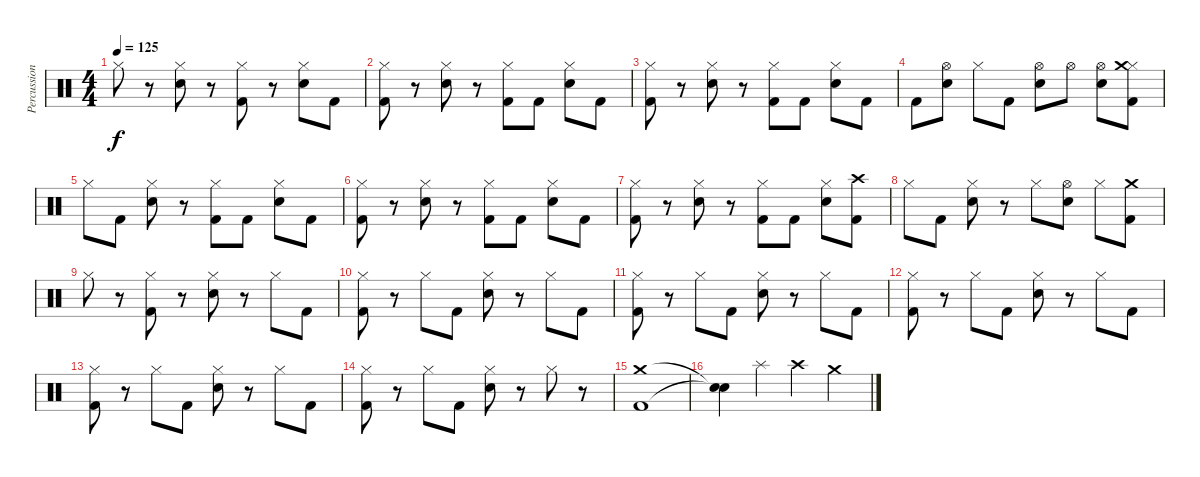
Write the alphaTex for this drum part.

\track ("Percussion" "Percussion") {instrument percussion}
\staff {score}
\articulation defaults
\ts (4 4)
\tempo 125
\clef neutral
\ks c "Hi-Hat (closed)".8{dy f}
r.8 ("Hi-Hat (closed)" "Metronome (bell)").8 r.8 ("Hi-Hat (closed)" "Kick (hit) 2").8 r.8 ("Hi-Hat (closed)" "Metronome (bell)").8 "Kick (hit) 2".8 |
("Hi-Hat (closed)" "Kick (hit) 2").8 r.8 ("Hi-Hat (closed)" "Metronome (bell)").8 r.8 ("Hi-Hat (closed)" "Kick (hit) 2").8 "Kick (hit) 2".8 ("Hi-Hat (closed)" "Metronome (bell)").8 "Kick (hit) 2".8 |
("Hi-Hat (closed)" "Kick (hit) 2").8 r.8 ("Hi-Hat (closed)" "Metronome (bell)").8 r.8 ("Hi-Hat (closed)" "Kick (hit) 2").8 "Kick (hit) 2".8 ("Hi-Hat (closed)" "Metronome (bell)").8 "Kick (hit) 2".8 |
"Kick (hit) 2".8 ("Hi-Hat (open)" "Metronome (bell)").8 "Hi-Hat (closed)".8 "Kick (hit) 2".8 ("Hi-Hat (open)" "Metronome (bell)").8 "Hi-Hat (open)".8 ("Hi-Hat (open)" "Metronome (bell)").8 ("Hi-Hat (closed)" "Crash medium (hit)" "Kick (hit) 2").8 |
"Hi-Hat (closed)".8 "Kick (hit) 2".8 ("Hi-Hat (closed)" "Metronome (bell)").8 r.8 ("Hi-Hat (closed)" "Kick (hit) 2").8 "Kick (hit) 2".8 ("Hi-Hat (closed)" "Metronome (bell)").8 "Kick (hit) 2".8 |
("Hi-Hat (closed)" "Kick (hit) 2").8 r.8 ("Hi-Hat (closed)" "Metronome (bell)").8 r.8 ("Hi-Hat (closed)" "Kick (hit) 2").8 "Kick (hit) 2".8 ("Hi-Hat (closed)" "Metronome (bell)").8 "Kick (hit) 2".8 |
("Hi-Hat (closed)" "Kick (hit) 2").8 r.8 ("Hi-Hat (closed)" "Metronome (bell)").8 r.8 ("Hi-Hat (closed)" "Kick (hit) 2").8 "Kick (hit) 2".8 ("Hi-Hat (closed)" "Metronome (bell)").8 ("Crash high (hit)" "Kick (hit) 2").8 |
"Hi-Hat (closed)".8 "Kick (hit) 2".8 ("Hi-Hat (closed)" "Metronome (bell)").8 r.8 "Hi-Hat (closed)".8 ("Hi-Hat (open)" "Metronome (bell)").8 "Hi-Hat (closed)".8 ("Crash medium (hit)" "Kick (hit) 2").8 |
"Hi-Hat (closed)".8 r.8 ("Hi-Hat (closed)" "Kick (hit) 2").8 r.8 ("Hi-Hat (closed)" "Metronome (bell)").8 r.8 "Hi-Hat (closed)".8 "Kick (hit) 2".8 |
("Hi-Hat (closed)" "Kick (hit) 2").8 r.8 "Hi-Hat (closed)".8 "Kick (hit) 2".8 ("Hi-Hat (closed)" "Metronome (bell)").8 r.8 "Hi-Hat (closed)".8 "Kick (hit) 2".8 |
("Hi-Hat (closed)" "Kick (hit) 2").8 r.8 "Hi-Hat (closed)".8 "Kick (hit) 2".8 ("Hi-Hat (closed)" "Metronome (bell)").8 r.8 "Hi-Hat (closed)".8 "Kick (hit) 2".8 |
("Hi-Hat (closed)" "Kick (hit) 2").8 r.8 "Hi-Hat (closed)".8 "Kick (hit) 2".8 ("Hi-Hat (closed)" "Metronome (bell)").8 r.8 "Hi-Hat (closed)".8 "Kick (hit) 2".8 |
("Hi-Hat (closed)" "Kick (hit) 2").8 r.8 "Hi-Hat (closed)".8 "Kick (hit) 2".8 ("Hi-Hat (closed)" "Metronome (bell)").8 r.8 "Hi-Hat (closed)".8 "Kick (hit) 2".8 |
("Hi-Hat (closed)" "Kick (hit) 2").8 r.8 "Hi-Hat (closed)".8 "Kick (hit) 2".8 ("Hi-Hat (closed)" "Metronome (bell)").8 r.8 "Hi-Hat (closed)".8 r.8 |
("Crash medium (hit)" "Kick (hit) 2").1 |
("Snare (hit)"{t} "Snare (hit)"{t}).4 "Splash (hit)".4 "Crash high (hit)".4 "Crash medium (hit)".4
